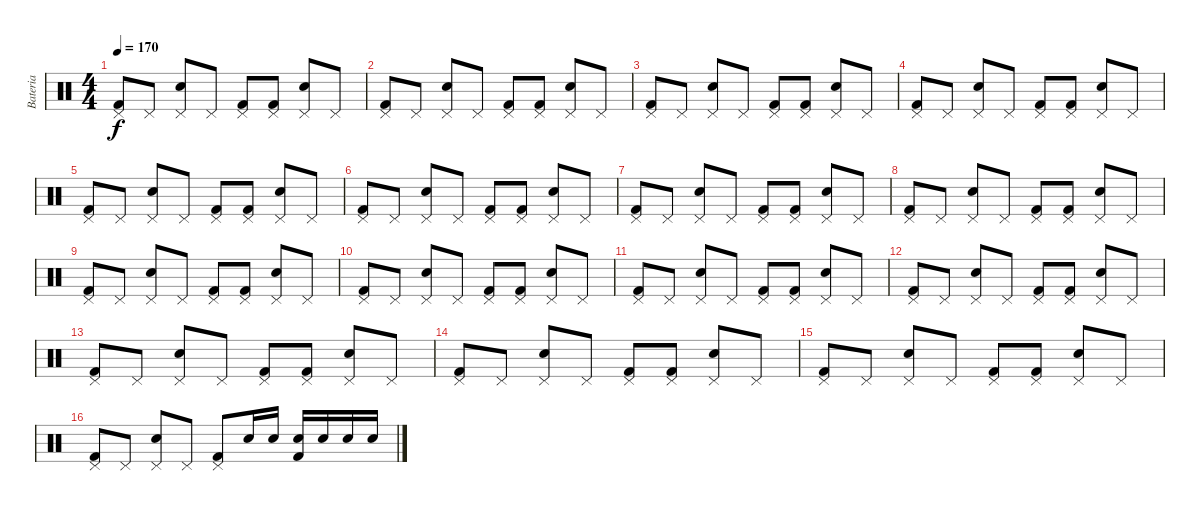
\track ("Bateria" "Bateria") {instrument percussion}
\staff {score}
\articulation defaults
\ts (4 4)
\tempo 170
\clef neutral
\ks c
("Pedal Hi-Hat (hit)" "Kick (hit) 2").8{dy f} "Pedal Hi-Hat (hit)".8 ("Pedal Hi-Hat (hit)" "Snare (hit) 2").8 "Pedal Hi-Hat (hit)".8 ("Pedal Hi-Hat (hit)" "Kick (hit) 2").8 ("Pedal Hi-Hat (hit)" "Kick (hit) 2").8 ("Pedal Hi-Hat (hit)" "Snare (hit) 2").8 "Pedal Hi-Hat (hit)".8 |
("Pedal Hi-Hat (hit)" "Kick (hit) 2").8 "Pedal Hi-Hat (hit)".8 ("Pedal Hi-Hat (hit)" "Snare (hit) 2").8 "Pedal Hi-Hat (hit)".8 ("Pedal Hi-Hat (hit)" "Kick (hit) 2").8 ("Pedal Hi-Hat (hit)" "Kick (hit) 2").8 ("Pedal Hi-Hat (hit)" "Snare (hit) 2").8 "Pedal Hi-Hat (hit)".8 |
("Pedal Hi-Hat (hit)" "Kick (hit) 2").8 "Pedal Hi-Hat (hit)".8 ("Pedal Hi-Hat (hit)" "Snare (hit) 2").8 "Pedal Hi-Hat (hit)".8 ("Pedal Hi-Hat (hit)" "Kick (hit) 2").8 ("Pedal Hi-Hat (hit)" "Kick (hit) 2").8 ("Pedal Hi-Hat (hit)" "Snare (hit) 2").8 "Pedal Hi-Hat (hit)".8 |
("Pedal Hi-Hat (hit)" "Kick (hit) 2").8 "Pedal Hi-Hat (hit)".8 ("Pedal Hi-Hat (hit)" "Snare (hit) 2").8 "Pedal Hi-Hat (hit)".8 ("Pedal Hi-Hat (hit)" "Kick (hit) 2").8 ("Pedal Hi-Hat (hit)" "Kick (hit) 2").8 ("Pedal Hi-Hat (hit)" "Snare (hit) 2").8 "Pedal Hi-Hat (hit)".8 |
("Pedal Hi-Hat (hit)" "Kick (hit) 2").8 "Pedal Hi-Hat (hit)".8 ("Pedal Hi-Hat (hit)" "Snare (hit) 2").8 "Pedal Hi-Hat (hit)".8 ("Pedal Hi-Hat (hit)" "Kick (hit) 2").8 ("Pedal Hi-Hat (hit)" "Kick (hit) 2").8 ("Pedal Hi-Hat (hit)" "Snare (hit) 2").8 "Pedal Hi-Hat (hit)".8 |
("Pedal Hi-Hat (hit)" "Kick (hit) 2").8 "Pedal Hi-Hat (hit)".8 ("Pedal Hi-Hat (hit)" "Snare (hit) 2").8 "Pedal Hi-Hat (hit)".8 ("Pedal Hi-Hat (hit)" "Kick (hit) 2").8 ("Pedal Hi-Hat (hit)" "Kick (hit) 2").8 ("Pedal Hi-Hat (hit)" "Snare (hit) 2").8 "Pedal Hi-Hat (hit)".8 |
("Pedal Hi-Hat (hit)" "Kick (hit) 2").8 "Pedal Hi-Hat (hit)".8 ("Pedal Hi-Hat (hit)" "Snare (hit) 2").8 "Pedal Hi-Hat (hit)".8 ("Pedal Hi-Hat (hit)" "Kick (hit) 2").8 ("Pedal Hi-Hat (hit)" "Kick (hit) 2").8 ("Pedal Hi-Hat (hit)" "Snare (hit) 2").8 "Pedal Hi-Hat (hit)".8 |
("Pedal Hi-Hat (hit)" "Kick (hit) 2").8 "Pedal Hi-Hat (hit)".8 ("Pedal Hi-Hat (hit)" "Snare (hit) 2").8 "Pedal Hi-Hat (hit)".8 ("Pedal Hi-Hat (hit)" "Kick (hit) 2").8 ("Pedal Hi-Hat (hit)" "Kick (hit) 2").8 ("Pedal Hi-Hat (hit)" "Snare (hit) 2").8 "Pedal Hi-Hat (hit)".8 |
("Pedal Hi-Hat (hit)" "Kick (hit) 2").8 "Pedal Hi-Hat (hit)".8 ("Pedal Hi-Hat (hit)" "Snare (hit) 2").8 "Pedal Hi-Hat (hit)".8 ("Pedal Hi-Hat (hit)" "Kick (hit) 2").8 ("Pedal Hi-Hat (hit)" "Kick (hit) 2").8 ("Pedal Hi-Hat (hit)" "Snare (hit) 2").8 "Pedal Hi-Hat (hit)".8 |
("Pedal Hi-Hat (hit)" "Kick (hit) 2").8 "Pedal Hi-Hat (hit)".8 ("Pedal Hi-Hat (hit)" "Snare (hit) 2").8 "Pedal Hi-Hat (hit)".8 ("Pedal Hi-Hat (hit)" "Kick (hit) 2").8 ("Pedal Hi-Hat (hit)" "Kick (hit) 2").8 ("Pedal Hi-Hat (hit)" "Snare (hit) 2").8 "Pedal Hi-Hat (hit)".8 |
("Pedal Hi-Hat (hit)" "Kick (hit) 2").8 "Pedal Hi-Hat (hit)".8 ("Pedal Hi-Hat (hit)" "Snare (hit) 2").8 "Pedal Hi-Hat (hit)".8 ("Pedal Hi-Hat (hit)" "Kick (hit) 2").8 ("Pedal Hi-Hat (hit)" "Kick (hit) 2").8 ("Pedal Hi-Hat (hit)" "Snare (hit) 2").8 "Pedal Hi-Hat (hit)".8 |
("Pedal Hi-Hat (hit)" "Kick (hit) 2").8 "Pedal Hi-Hat (hit)".8 ("Pedal Hi-Hat (hit)" "Snare (hit) 2").8 "Pedal Hi-Hat (hit)".8 ("Pedal Hi-Hat (hit)" "Kick (hit) 2").8 ("Pedal Hi-Hat (hit)" "Kick (hit) 2").8 ("Pedal Hi-Hat (hit)" "Snare (hit) 2").8 "Pedal Hi-Hat (hit)".8 |
("Pedal Hi-Hat (hit)" "Kick (hit) 2").8 "Pedal Hi-Hat (hit)".8 ("Pedal Hi-Hat (hit)" "Snare (hit) 2").8 "Pedal Hi-Hat (hit)".8 ("Pedal Hi-Hat (hit)" "Kick (hit) 2").8 ("Pedal Hi-Hat (hit)" "Kick (hit) 2").8 ("Pedal Hi-Hat (hit)" "Snare (hit) 2").8 "Pedal Hi-Hat (hit)".8 |
("Pedal Hi-Hat (hit)" "Kick (hit) 2").8 "Pedal Hi-Hat (hit)".8 ("Pedal Hi-Hat (hit)" "Snare (hit) 2").8 "Pedal Hi-Hat (hit)".8 ("Pedal Hi-Hat (hit)" "Kick (hit) 2").8 ("Pedal Hi-Hat (hit)" "Kick (hit) 2").8 ("Pedal Hi-Hat (hit)" "Snare (hit) 2").8 "Pedal Hi-Hat (hit)".8 |
("Pedal Hi-Hat (hit)" "Kick (hit) 2").8 "Pedal Hi-Hat (hit)".8 ("Pedal Hi-Hat (hit)" "Snare (hit) 2").8 "Pedal Hi-Hat (hit)".8 ("Pedal Hi-Hat (hit)" "Kick (hit) 2").8 ("Pedal Hi-Hat (hit)" "Kick (hit) 2").8 ("Pedal Hi-Hat (hit)" "Snare (hit) 2").8 "Pedal Hi-Hat (hit)".8 |
("Pedal Hi-Hat (hit)" "Kick (hit) 2").8 "Pedal Hi-Hat (hit)".8 ("Pedal Hi-Hat (hit)" "Snare (hit) 2").8 "Pedal Hi-Hat (hit)".8 ("Pedal Hi-Hat (hit)" "Kick (hit) 2").8 "Snare (hit) 2".16 "Snare (hit) 2".16 ("Snare (hit) 2" "Kick (hit) 2").16 "Snare (hit) 2".16 "Snare (hit) 2".16 "Snare (hit) 2".16
